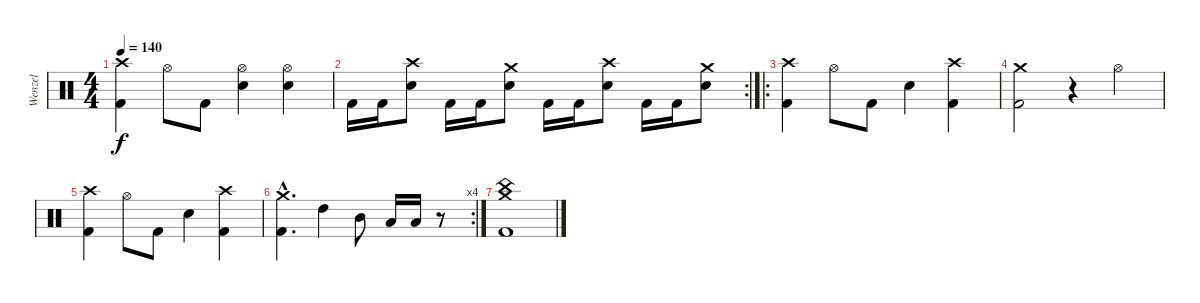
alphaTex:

\track ("Wenzel" "Wenzel") {instrument percussion}
\staff {score}
\articulation defaults
\ts (4 4)
\tempo 140
\clef neutral
\ks c
("Crash high (hit)" "Kick (hit) 2").4{dy f} "Hi-Hat (open)".8 "Kick (hit) 2".8 ("Hi-Hat (open)" "Snare (hit) 2").4 ("Hi-Hat (open)" "Snare (hit) 2").4 |
\rc 2 "Kick (hit) 2".16 "Kick (hit) 2".16
("Crash high (hit)" "Snare (hit) 2").8 "Kick (hit) 2".16 "Kick (hit) 2".16 ("Crash medium (hit)" "Snare (hit) 2").8 "Kick (hit) 2".16 "Kick (hit) 2".16 ("Crash high (hit)" "Snare (hit) 2").8 "Kick (hit) 2".16 "Kick (hit) 2".16 ("Crash medium (hit)" "Snare (hit) 2").8 |
\ro
("Crash high (hit)" "Kick (hit) 2").4 "Hi-Hat (open)".8 "Kick (hit) 2".8 "Snare (hit) 2".4 ("Crash high (hit)" "Kick (hit) 2").4 |
("Crash medium (hit)" "Kick (hit) 2").2 r.4 "Hi-Hat (open)".4 |
("Crash high (hit)" "Kick (hit) 2").4 "Hi-Hat (open)".8 "Kick (hit) 2".8 "Snare (hit) 2".4 ("Crash high (hit)" "Kick (hit) 2").4 |
\rc 4
("Crash medium (hit)"{hac} "Kick (hit) 2"{hac}).4{d} "High Tom (hit)".4 "Mid Tom (hit)".8 "Low Tom (hit)".16 "Low Tom (hit)".16 r.8 |
("China (hit)" "Crash medium (hit)" "Kick (hit) 2").1
